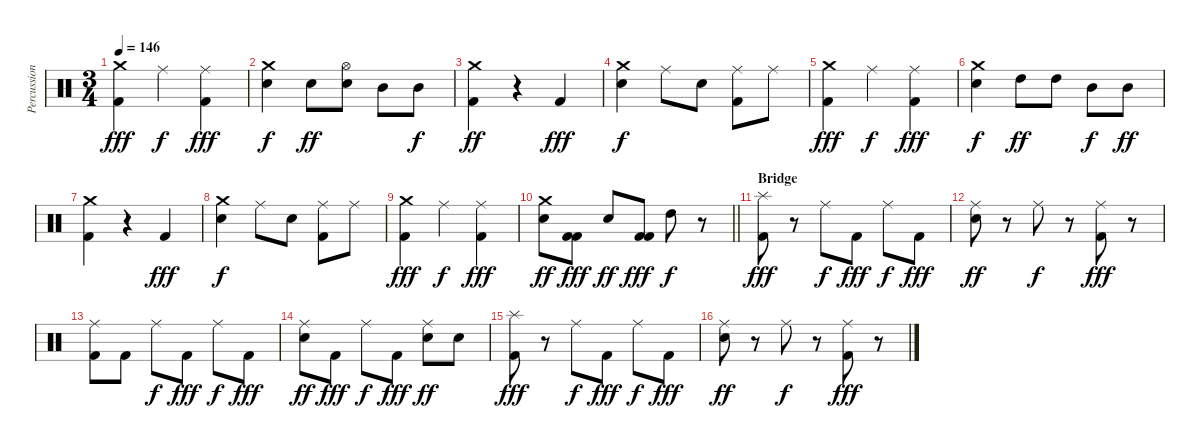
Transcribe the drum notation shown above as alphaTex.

\track ("Percussions" "Percussion") {instrument percussion}
\staff {score}
\articulation defaults
\ts (3 4)
\tempo 146
\clef neutral
\ks c
("Crash medium (hit)" "Kick (hit) 2").4{dy fff} "Ride (middle)".4{dy f} ("Ride (middle)" "Kick (hit) 2").4{dy fff} |
("Crash medium (hit)" "Snare (hit) 2").4{dy f} "Snare (hit) 2".8{dy ff} ("Hi-Hat (open)" "Snare (hit) 2").8 "Mid Tom (hit)".8 "Mid Tom (hit)".8{dy f} |
("Crash medium (hit)" "Kick (hit) 2").4{dy ff} r.4 "Kick (hit) 2".4{dy fff} |
("Crash medium (hit)" "Snare (hit) 2").4{dy f} "Ride (middle)".8 "Snare (hit)".8 ("Ride (middle)" "Kick (hit) 2").8 "Ride (middle)".8 |
("Crash medium (hit)" "Kick (hit) 2").4{dy fff} "Ride (middle)".4{dy f} ("Ride (middle)" "Kick (hit) 2").4{dy fff} |
("Crash medium (hit)" "Snare (hit) 2").4{dy f} "High Tom (hit)".8{dy ff} "High Tom (hit)".8 "Mid Tom (hit)".8{dy f} "Mid Tom (hit)".8{dy ff} |
("Crash medium (hit)" "Kick (hit) 2").4 r.4 "Kick (hit) 2".4{dy fff} |
("Crash medium (hit)" "Snare (hit) 2").4{dy f} "Ride (middle)".8 "Snare (hit)".8 ("Ride (middle)" "Kick (hit) 2").8 "Ride (middle)".8 |
("Crash medium (hit)" "Kick (hit) 2").4{dy fff} "Ride (middle)".4{dy f} ("Ride (middle)" "Kick (hit) 2").4{dy fff} |
\barLineRight lightlight
("Crash medium (hit)" "Snare (hit) 2").8{dy ff} ("Kick (hit) 2" "Kick (hit) 2").8{dy fff} "Snare (hit) 2".8{dy ff} ("Kick (hit) 2" "Kick (hit) 2").8{dy fff} "High Tom (hit)".8{dy f} r.8 |
\section ("" "Bridge")
("Splash (hit)" "Kick (hit) 2").8{dy fff} r.8 "Ride (middle)".8{dy f} "Kick (hit) 2".8{dy fff} "Ride (middle)".8{dy f} "Kick (hit) 2".8{dy fff} |
("Ride (middle)" "Snare (hit) 2").8{dy ff} r.8 "Ride (middle)".8{dy f} r.8 ("Ride (middle)" "Kick (hit) 2").8{dy fff} r.8 |
("Ride (middle)" "Kick (hit) 2").8 "Kick (hit) 2".8 "Ride (middle)".8{dy f} "Kick (hit) 2".8{dy fff} "Ride (middle)".8{dy f} "Kick (hit) 2".8{dy fff} |
("Ride (middle)" "Snare (hit) 2").8{dy ff} "Kick (hit) 2".8{dy fff} "Ride (middle)".8{dy f} "Kick (hit) 2".8{dy fff} ("Ride (middle)" "Snare (hit) 2").8{dy ff} "Snare (hit) 2".8 |
("Splash (hit)" "Kick (hit) 2").8{dy fff} r.8 "Ride (middle)".8{dy f} "Kick (hit) 2".8{dy fff} "Ride (middle)".8{dy f} "Kick (hit) 2".8{dy fff} |
("Ride (middle)" "Snare (hit) 2").8{dy ff} r.8 "Ride (middle)".8{dy f} r.8 ("Ride (middle)" "Kick (hit) 2").8{dy fff} r.8
